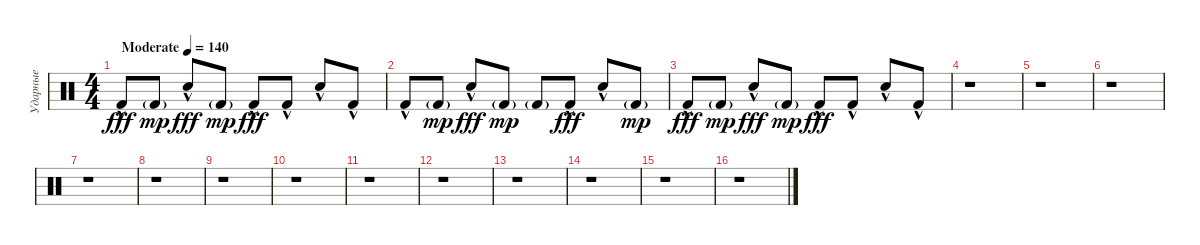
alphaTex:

\track ("Ударные" "Ударные") {instrument percussion}
\staff {score}
\articulation defaults
\ts (4 4)
\tempo (140 "Moderate")
\clef neutral
\ks c "Kick (hit) 2"{hac}.8{dy fff} "Kick (hit) 2"{g}.8{dy mp} "Snare (hit) 2"{hac}.8{dy fff} "Kick (hit) 2"{g}.8{dy mp} "Kick (hit) 2"{hac}.8{dy fff} "Kick (hit) 2"{hac}.8 "Snare (hit) 2"{hac}.8 "Kick (hit) 2"{hac}.8
|
"Kick (hit) 2"{hac}.8 "Kick (hit) 2"{g}.8{dy mp} "Snare (hit) 2"{hac}.8{dy fff} "Kick (hit) 2"{g}.8{dy mp} "Kick (hit) 2"{g}.8 "Kick (hit) 2"{hac}.8{dy fff} "Snare (hit) 2"{hac}.8 "Kick (hit) 2"{g}.8{dy mp} |
"Kick (hit) 2"{hac}.8{dy fff} "Kick (hit) 2"{g}.8{dy mp} "Snare (hit) 2"{hac}.8{dy fff} "Kick (hit) 2"{g}.8{dy mp} "Kick (hit) 2"{hac}.8{dy fff} "Kick (hit) 2"{hac}.8 "Snare (hit) 2"{hac}.8 "Kick (hit) 2"{hac}.8 |
r.1 |
r.1 |
r.1 |
r.1 |
r.1 |
r.1 |
r.1 |
r.1 |
r.1 |
r.1 |
r.1 |
r.1 |
r.1
